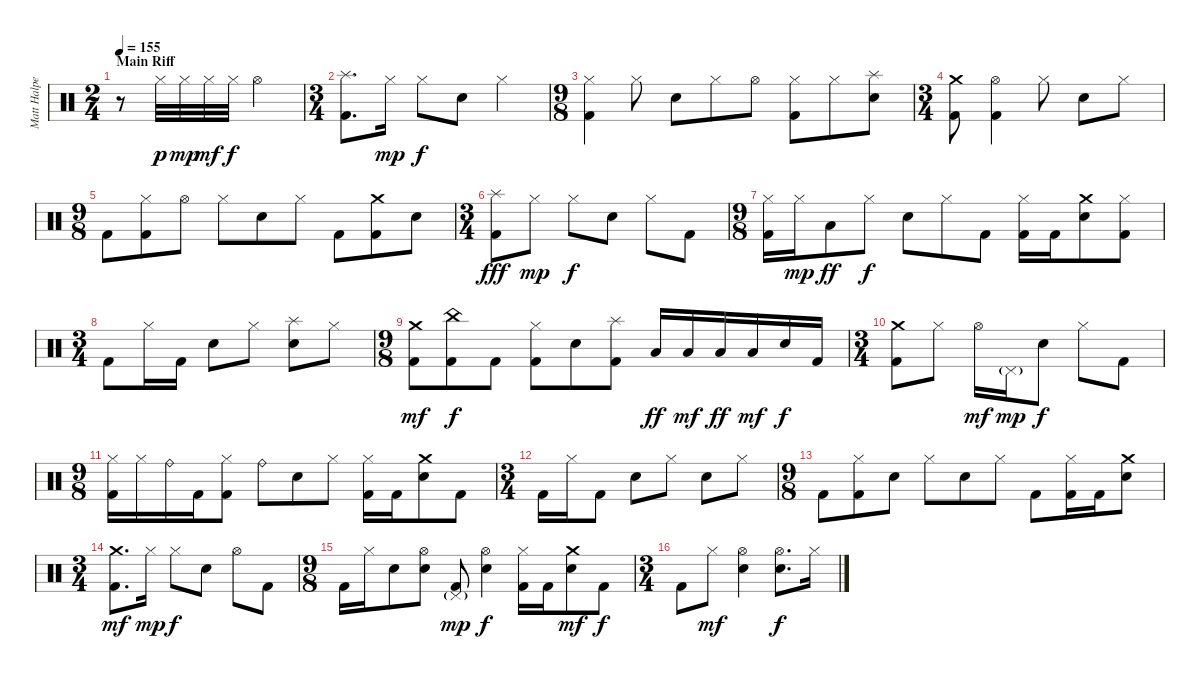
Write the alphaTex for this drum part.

\track ("Matt Halpern - Drums" "Matt Halpe") {instrument percussion}
\staff {score}
\articulation defaults
\ts (2 4)
\section ("" "Main Riff")
\tempo 155
\clef neutral
\ks c
r.8{dy p} "Hi-Hat (closed)".32 "Hi-Hat (closed)".32{dy mp} "Hi-Hat (closed)".32{dy mf} "Hi-Hat (closed)".32{dy f} "Hi-Hat (open)".4 |
\ts (3 4)
("Splash (hit)" "Kick (hit) 2").8{d} "Hi-Hat (closed)".16{dy mp} "Hi-Hat (closed)".8{dy f} "Electric Snare (hit)".8 "Hi-Hat (closed)".4 |
\ts (9 8)
("Hi-Hat (closed)" "Kick (hit) 2").4 "Hi-Hat (closed)".8 "Electric Snare (hit)".8 "Hi-Hat (closed)".8 "Hi-Hat (open)".8 ("Hi-Hat (closed)" "Kick (hit) 2").8 "Hi-Hat (closed)".8 ("Splash (hit)" "Electric Snare (hit)").8 |
\ts (3 4)
("Crash medium (hit)" "Kick (hit) 2").8 ("Hi-Hat (open)" "Kick (hit) 2").4 "Hi-Hat (closed)".8 "Electric Snare (hit)".8 "Hi-Hat (closed)".8 |
\ts (9 8)
"Kick (hit) 2".8 ("Hi-Hat (closed)" "Kick (hit) 2").8 "Hi-Hat (open)".8 "Hi-Hat (closed)".8 "Electric Snare (hit)".8 "Hi-Hat (closed)".8 "Kick (hit) 2".8 ("Crash medium (hit)" "Kick (hit) 2").8 "Electric Snare (hit)".8 |
\ts (3 4)
("Splash (hit)" "Kick (hit) 2").8{dy fff} "Hi-Hat (closed)".8{dy mp} "Hi-Hat (closed)".8{dy f} "Electric Snare (hit)".8 "Hi-Hat (closed)".8 "Kick (hit) 2".8 |
\ts (9 8)
("Hi-Hat (closed)" "Kick (hit) 2").16 "Hi-Hat (closed)".16{dy mp} "Low Floor Tom (hit)".8{dy ff} "Hi-Hat (closed)".8{dy f} "Electric Snare (hit)".8 "Hi-Hat (closed)".8 "Kick (hit) 2".8 ("Hi-Hat (closed)" "Kick (hit) 2").16 "Kick (hit) 2".16 ("Crash medium (hit)" "Electric Snare (hit)").8 ("Hi-Hat (closed)" "Kick (hit) 2").8 |
\ts (3 4)
"Kick (hit) 2".8 "Hi-Hat (closed)".16 "Kick (hit) 2".16 "Electric Snare (hit)".8 "Hi-Hat (closed)".8 ("Splash (hit)" "Electric Snare (hit)").8 "Hi-Hat (closed)".8 |
\ts (9 8)
("Crash medium (hit)" "Kick (hit) 2").8{dy mf} ("China (hit)" "Kick (hit) 2").8{dy f} "Kick (hit) 2".8 ("Hi-Hat (closed)" "Kick (hit) 2").8 "Electric Snare (hit)".8 ("Splash (hit)" "Kick (hit) 2").8 "Low Floor Tom (hit)".16{dy ff} "Low Floor Tom (hit)".16{dy mf} "Low Floor Tom (hit)".16{dy ff} "Low Floor Tom (hit)".16{dy mf} "Electric Snare (hit)".16{dy f} "Kick (hit) 2".16 |
\ts (3 4)
("Crash medium (hit)" "Kick (hit) 2").8 "Hi-Hat (closed)".8 "Hi-Hat (open)".16{dy mf} "Pedal Hi-Hat (hit)"{g}.16{dy mp} "Electric Snare (hit)".8{dy f} "Hi-Hat (closed)".8 "Kick (hit) 2".8 |
\ts (9 8)
("Hi-Hat (closed)" "Kick (hit) 2").16 "Hi-Hat (closed)".16 "Ride (bell)".16 "Kick (hit) 2".16 ("Hi-Hat (closed)" "Kick (hit) 2").8 "Ride (bell)".8 "Electric Snare (hit)".8 "Hi-Hat (closed)".8 ("Hi-Hat (closed)" "Kick (hit) 2").16 "Kick (hit) 2".16 ("Crash medium (hit)" "Electric Snare (hit)").8 "Kick (hit) 2".8 |
\ts (3 4)
"Kick (hit) 2".16 "Hi-Hat (closed)".16 "Kick (hit) 2".8 "Electric Snare (hit)".8 "Hi-Hat (closed)".8 "Electric Snare (hit)".8 "Hi-Hat (closed)".8 |
\ts (9 8)
"Kick (hit) 2".8 ("Hi-Hat (closed)" "Kick (hit) 2").8 "Electric Snare (hit)".8 "Hi-Hat (closed)".8 "Electric Snare (hit)".8 "Hi-Hat (closed)".8 "Kick (hit) 2".8 ("Hi-Hat (closed)" "Kick (hit) 2").16 "Kick (hit) 2".16 ("Crash medium (hit)" "Electric Snare (hit)").8 |
\ts (3 4)
("Crash medium (hit)" "Kick (hit) 2").8{d dy mf} "Hi-Hat (closed)".16{dy mp} "Hi-Hat (closed)".8{dy f} "Electric Snare (hit)".8 "Hi-Hat (open)".8 "Kick (hit) 2".8 |
\ts (9 8)
"Kick (hit) 2".16 "Hi-Hat (closed)".16 "Electric Snare (hit)".8 ("Hi-Hat (open)" "Electric Snare (hit)").8 ("Pedal Hi-Hat (hit)"{g} "Kick (hit) 2").8{dy mp} ("Hi-Hat (open)" "Electric Snare (hit)").4{dy f} ("Hi-Hat (closed)" "Kick (hit) 2").16 "Kick (hit) 2".16 ("Crash medium (hit)" "Electric Snare (hit)").8{dy mf} "Kick (hit) 2".8{dy f} |
\ts (3 4)
"Kick (hit) 2".8 "Hi-Hat (closed)".8{dy mf} ("Hi-Hat (open)" "Electric Snare (hit)").4 ("Hi-Hat (open)" "Electric Snare (hit)").8{d dy f} "Hi-Hat (closed)".16
